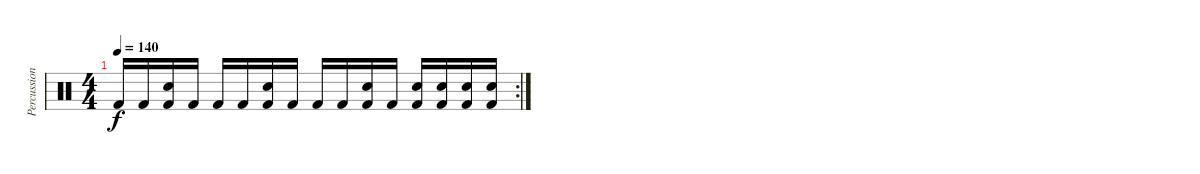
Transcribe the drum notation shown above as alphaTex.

\track ("Percussion" "Percussion") {instrument percussion}
\staff {score}
\articulation defaults
\rc 2
\ts (4 4)
\tempo 140
\clef neutral
\ks c "Kick (hit) 2".16{dy f} "Kick (hit) 2".16
("Snare (hit) 2" "Kick (hit) 2").16 "Kick (hit) 2".16 "Kick (hit) 2".16 "Kick (hit) 2".16 ("Snare (hit) 2" "Kick (hit) 2").16 "Kick (hit) 2".16 "Kick (hit) 2".16 "Kick (hit) 2".16 ("Snare (hit) 2" "Kick (hit) 2").16 "Kick (hit) 2".16 ("Snare (hit) 2" "Kick (hit) 2").16 ("Snare (hit) 2" "Kick (hit) 2").16 ("Snare (hit) 2" "Kick (hit) 2").16 ("Snare (hit) 2" "Kick (hit) 2").16
